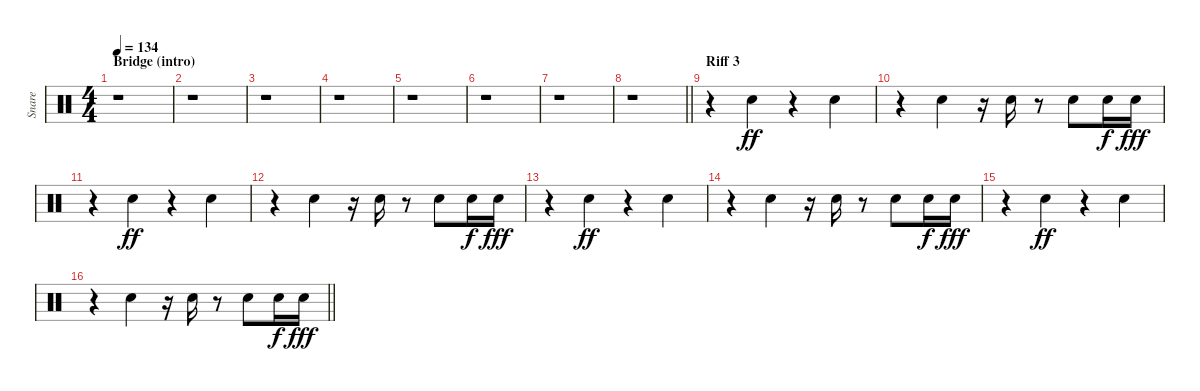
\track ("Snare" "Snare") {instrument percussion}
\staff {score}
\articulation defaults
\ts (4 4)
\section ("" "Bridge (intro)")
\tempo 134
\clef neutral
\ks c
r.1{dy fff} |
r.1 |
r.1 |
r.1 |
r.1 |
r.1 |
r.1 |
\barLineRight lightlight
r.1 |
\section ("" "Riff 3")
r.4 "Snare (hit) 2".4{dy ff} r.4 "Snare (hit) 2".4 |
r.4 "Snare (hit) 2".4 r.16 "Snare (hit) 2".16 r.8 "Snare (hit) 2".8 "Snare (hit) 2".16{dy f} "Snare (hit) 2".16{dy fff} |
r.4 "Snare (hit) 2".4{dy ff} r.4 "Snare (hit) 2".4 |
r.4 "Snare (hit) 2".4 r.16 "Snare (hit) 2".16 r.8 "Snare (hit) 2".8 "Snare (hit) 2".16{dy f} "Snare (hit) 2".16{dy fff} |
r.4 "Snare (hit) 2".4{dy ff} r.4 "Snare (hit) 2".4 |
r.4 "Snare (hit) 2".4 r.16 "Snare (hit) 2".16 r.8 "Snare (hit) 2".8 "Snare (hit) 2".16{dy f} "Snare (hit) 2".16{dy fff} |
r.4 "Snare (hit) 2".4{dy ff} r.4 "Snare (hit) 2".4 |
\barLineRight lightlight
r.4 "Snare (hit) 2".4 r.16 "Snare (hit) 2".16 r.8 "Snare (hit) 2".8 "Snare (hit) 2".16{dy f} "Snare (hit) 2".16{dy fff}
